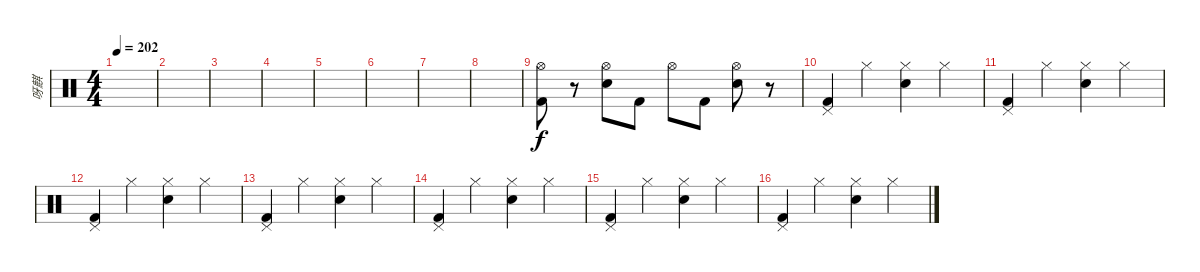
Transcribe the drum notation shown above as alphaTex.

\track ("呀麒" "呀麒") {instrument percussion}
\staff {score}
\articulation defaults
\ts (4 4)
\tempo 202
\clef neutral
\ks c
|
|
|
|
|
|
|
|
("Hi-Hat (open)" "Kick (hit) 2").8 r.8 ("Hi-Hat (open)" "Snare (hit) 2").8 "Kick (hit) 2".8 "Hi-Hat (open)".8 "Kick (hit) 2".8 ("Hi-Hat (open)" "Snare (hit) 2").8 r.8 |
("Pedal Hi-Hat (hit)" "Kick (hit) 2").4 "Hi-Hat (closed)".4 ("Hi-Hat (closed)" "Snare (hit) 2").4 "Hi-Hat (closed)".4 |
("Pedal Hi-Hat (hit)" "Kick (hit) 2").4 "Hi-Hat (closed)".4 ("Hi-Hat (closed)" "Snare (hit) 2").4 "Hi-Hat (closed)".4 |
("Pedal Hi-Hat (hit)" "Kick (hit) 2").4 "Hi-Hat (closed)".4 ("Hi-Hat (closed)" "Snare (hit) 2").4 "Hi-Hat (closed)".4 |
("Pedal Hi-Hat (hit)" "Kick (hit) 2").4 "Hi-Hat (closed)".4 ("Hi-Hat (closed)" "Snare (hit) 2").4 "Hi-Hat (closed)".4 |
("Pedal Hi-Hat (hit)" "Kick (hit) 2").4 "Hi-Hat (closed)".4 ("Hi-Hat (closed)" "Snare (hit) 2").4 "Hi-Hat (closed)".4 |
("Pedal Hi-Hat (hit)" "Kick (hit) 2").4 "Hi-Hat (closed)".4 ("Hi-Hat (closed)" "Snare (hit) 2").4 "Hi-Hat (closed)".4 |
("Pedal Hi-Hat (hit)" "Kick (hit) 2").4 "Hi-Hat (closed)".4 ("Hi-Hat (closed)" "Snare (hit) 2").4 "Hi-Hat (closed)".4
